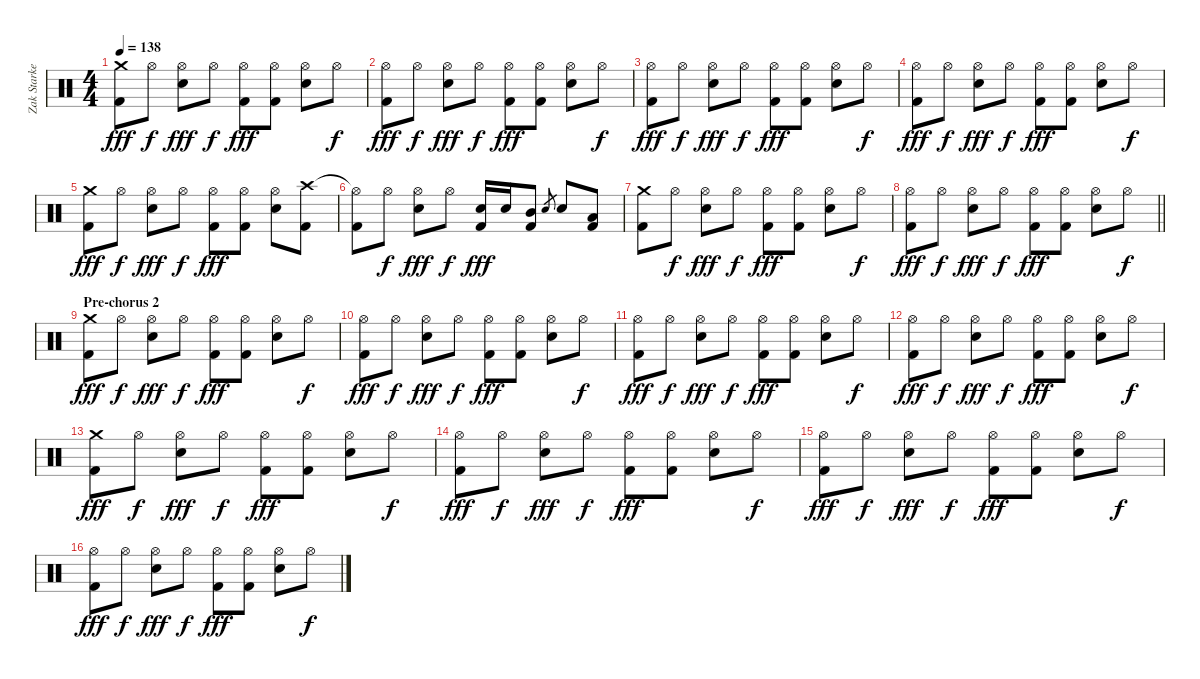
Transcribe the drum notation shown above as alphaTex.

\track ("Zak Starkey" "Zak Starke") {instrument percussion}
\staff {score}
\articulation defaults
\ts (4 4)
\tempo 138
\clef neutral
\ks c
("Crash medium (hit)" "Kick (hit) 2").8{dy fff} "Hi-Hat (open)".8{dy f} ("Hi-Hat (open)" "Snare (hit) 2").8{dy fff} "Hi-Hat (open)".8{dy f} ("Hi-Hat (open)" "Kick (hit) 2").8{dy fff} ("Hi-Hat (open)" "Kick (hit) 2").8 ("Hi-Hat (open)" "Snare (hit) 2").8 "Hi-Hat (open)".8{dy f} |
("Hi-Hat (open)" "Kick (hit) 2").8{dy fff} "Hi-Hat (open)".8{dy f} ("Hi-Hat (open)" "Snare (hit) 2").8{dy fff} "Hi-Hat (open)".8{dy f} ("Hi-Hat (open)" "Kick (hit) 2").8{dy fff} ("Hi-Hat (open)" "Kick (hit) 2").8 ("Hi-Hat (open)" "Snare (hit) 2").8 "Hi-Hat (open)".8{dy f} |
("Hi-Hat (open)" "Kick (hit) 2").8{dy fff} "Hi-Hat (open)".8{dy f} ("Hi-Hat (open)" "Snare (hit) 2").8{dy fff} "Hi-Hat (open)".8{dy f} ("Hi-Hat (open)" "Kick (hit) 2").8{dy fff} ("Hi-Hat (open)" "Kick (hit) 2").8 ("Hi-Hat (open)" "Snare (hit) 2").8 "Hi-Hat (open)".8{dy f} |
("Hi-Hat (open)" "Kick (hit) 2").8{dy fff} "Hi-Hat (open)".8{dy f} ("Hi-Hat (open)" "Snare (hit) 2").8{dy fff} "Hi-Hat (open)".8{dy f} ("Hi-Hat (open)" "Kick (hit) 2").8{dy fff} ("Hi-Hat (open)" "Kick (hit) 2").8 ("Hi-Hat (open)" "Snare (hit) 2").8 "Hi-Hat (open)".8{dy f} |
("Crash medium (hit)" "Kick (hit) 2").8{dy fff} "Hi-Hat (open)".8{dy f} ("Hi-Hat (open)" "Snare (hit) 2").8{dy fff} "Hi-Hat (open)".8{dy f} ("Hi-Hat (open)" "Kick (hit) 2").8{dy fff} ("Hi-Hat (open)" "Kick (hit) 2").8 ("Hi-Hat (open)" "Snare (hit) 2").8 ("Crash high (hit)" "Kick (hit) 2").8 |
("Hi-Hat (open)"{t} "Kick (hit) 2").8 "Hi-Hat (open)".8{dy f} ("Hi-Hat (open)" "Snare (hit) 2").8{dy fff} "Hi-Hat (open)".8{dy f} ("Snare (hit) 2" "Kick (hit) 2").16{dy fff} "Snare (hit) 2".16 ("Mid Tom (hit)" "Kick (hit) 2").8 "Snare (hit) 2".8{gr} "Snare (hit) 2".8 ("Low Tom (hit)" "Kick (hit) 2").8 |
("Crash medium (hit)" "Kick (hit) 2").8 "Hi-Hat (open)".8{dy f} ("Hi-Hat (open)" "Snare (hit) 2").8{dy fff} "Hi-Hat (open)".8{dy f} ("Hi-Hat (open)" "Kick (hit) 2").8{dy fff} ("Hi-Hat (open)" "Kick (hit) 2").8 ("Hi-Hat (open)" "Snare (hit) 2").8 "Hi-Hat (open)".8{dy f} |
\barLineRight lightlight
("Hi-Hat (open)" "Kick (hit) 2").8{dy fff} "Hi-Hat (open)".8{dy f} ("Hi-Hat (open)" "Snare (hit) 2").8{dy fff} "Hi-Hat (open)".8{dy f} ("Hi-Hat (open)" "Kick (hit) 2").8{dy fff} ("Hi-Hat (open)" "Kick (hit) 2").8 ("Hi-Hat (open)" "Snare (hit) 2").8 "Hi-Hat (open)".8{dy f} |
\section ("" "Pre-chorus 2")
("Crash medium (hit)" "Kick (hit) 2").8{dy fff} "Hi-Hat (open)".8{dy f} ("Hi-Hat (open)" "Snare (hit) 2").8{dy fff} "Hi-Hat (open)".8{dy f} ("Hi-Hat (open)" "Kick (hit) 2").8{dy fff} ("Hi-Hat (open)" "Kick (hit) 2").8 ("Hi-Hat (open)" "Snare (hit) 2").8 "Hi-Hat (open)".8{dy f} |
("Hi-Hat (open)" "Kick (hit) 2").8{dy fff} "Hi-Hat (open)".8{dy f} ("Hi-Hat (open)" "Snare (hit) 2").8{dy fff} "Hi-Hat (open)".8{dy f} ("Hi-Hat (open)" "Kick (hit) 2").8{dy fff} ("Hi-Hat (open)" "Kick (hit) 2").8 ("Hi-Hat (open)" "Snare (hit) 2").8 "Hi-Hat (open)".8{dy f} |
("Hi-Hat (open)" "Kick (hit) 2").8{dy fff} "Hi-Hat (open)".8{dy f} ("Hi-Hat (open)" "Snare (hit) 2").8{dy fff} "Hi-Hat (open)".8{dy f} ("Hi-Hat (open)" "Kick (hit) 2").8{dy fff} ("Hi-Hat (open)" "Kick (hit) 2").8 ("Hi-Hat (open)" "Snare (hit) 2").8 "Hi-Hat (open)".8{dy f} |
("Hi-Hat (open)" "Kick (hit) 2").8{dy fff} "Hi-Hat (open)".8{dy f} ("Hi-Hat (open)" "Snare (hit) 2").8{dy fff} "Hi-Hat (open)".8{dy f} ("Hi-Hat (open)" "Kick (hit) 2").8{dy fff} ("Hi-Hat (open)" "Kick (hit) 2").8 ("Hi-Hat (open)" "Snare (hit) 2").8 "Hi-Hat (open)".8{dy f} |
("Crash medium (hit)" "Kick (hit) 2").8{dy fff} "Hi-Hat (open)".8{dy f} ("Hi-Hat (open)" "Snare (hit) 2").8{dy fff} "Hi-Hat (open)".8{dy f} ("Hi-Hat (open)" "Kick (hit) 2").8{dy fff} ("Hi-Hat (open)" "Kick (hit) 2").8 ("Hi-Hat (open)" "Snare (hit) 2").8 "Hi-Hat (open)".8{dy f} |
("Hi-Hat (open)" "Kick (hit) 2").8{dy fff} "Hi-Hat (open)".8{dy f} ("Hi-Hat (open)" "Snare (hit) 2").8{dy fff} "Hi-Hat (open)".8{dy f} ("Hi-Hat (open)" "Kick (hit) 2").8{dy fff} ("Hi-Hat (open)" "Kick (hit) 2").8 ("Hi-Hat (open)" "Snare (hit) 2").8 "Hi-Hat (open)".8{dy f} |
("Hi-Hat (open)" "Kick (hit) 2").8{dy fff} "Hi-Hat (open)".8{dy f} ("Hi-Hat (open)" "Snare (hit) 2").8{dy fff} "Hi-Hat (open)".8{dy f} ("Hi-Hat (open)" "Kick (hit) 2").8{dy fff} ("Hi-Hat (open)" "Kick (hit) 2").8 ("Hi-Hat (open)" "Snare (hit) 2").8 "Hi-Hat (open)".8{dy f} |
("Hi-Hat (open)" "Kick (hit) 2").8{dy fff} "Hi-Hat (open)".8{dy f} ("Hi-Hat (open)" "Snare (hit) 2").8{dy fff} "Hi-Hat (open)".8{dy f} ("Hi-Hat (open)" "Kick (hit) 2").8{dy fff} ("Hi-Hat (open)" "Kick (hit) 2").8 ("Hi-Hat (open)" "Snare (hit) 2").8 "Hi-Hat (open)".8{dy f}
